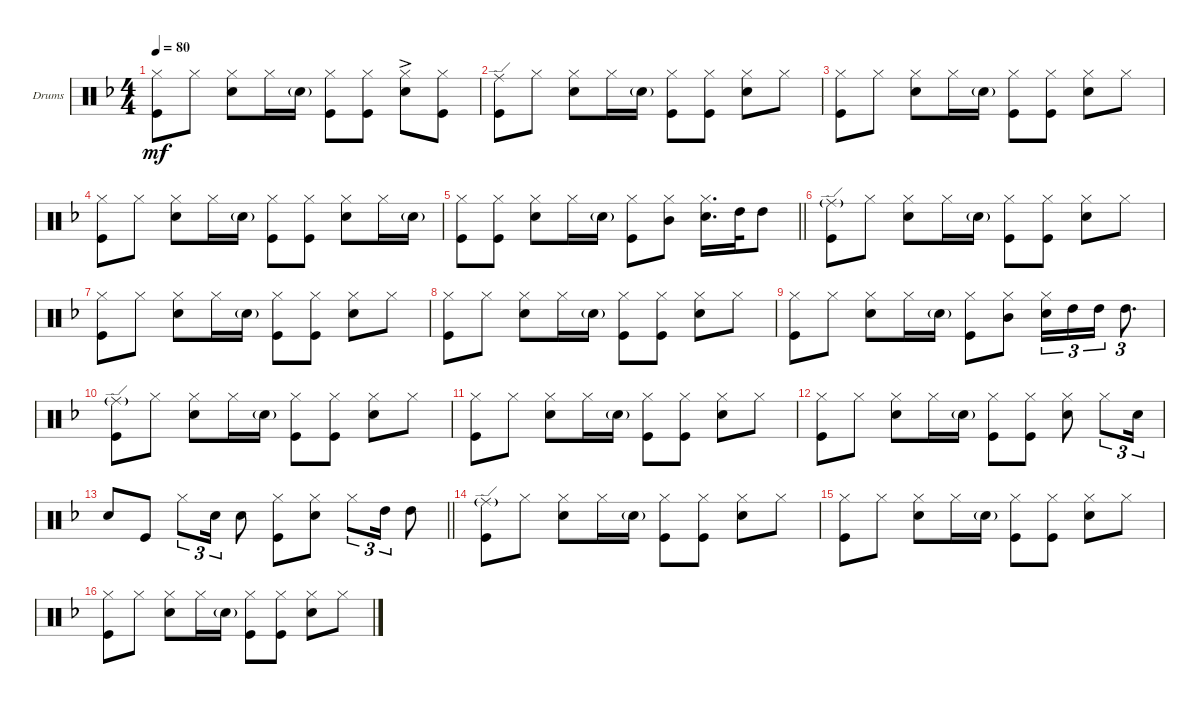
\defaultSystemsLayout 4
\bracketExtendMode groupsimilarinstruments
\firstSystemTrackNameOrientation horizontal
\otherSystemsTrackNameOrientation horizontal
\track ("Drumkit" "Drums") {instrument percussion}
\staff {score}
\articulation defaults
\ts (4 4)
\tempo 80
\clef neutral
\ks f
("Kick (hit)" "Hi-Hat (closed)").8{dy mf} "Hi-Hat (closed)".8 ("Snare (hit) 2" "Hi-Hat (closed)").8 "Hi-Hat (closed)".16 "Snare (hit) 2"{g}.16 ("Hi-Hat (closed)" "Kick (hit)").8 ("Hi-Hat (closed)" "Kick (hit)").8 ("Hi-Hat (closed)" "Snare (hit) 2"{ac}).8 ("Hi-Hat (closed)" "Kick (hit)").8 |
("Kick (hit)" "Ride (edge)").8 "Hi-Hat (closed)".8 ("Snare (hit) 2" "Hi-Hat (closed)").8 "Hi-Hat (closed)".16 "Snare (hit) 2"{g}.16 ("Hi-Hat (closed)" "Kick (hit)").8 ("Hi-Hat (closed)" "Kick (hit)").8 ("Hi-Hat (closed)" "Snare (hit) 2").8 "Hi-Hat (closed)".8 |
("Kick (hit)" "Hi-Hat (closed)").8 "Hi-Hat (closed)".8 ("Snare (hit) 2" "Hi-Hat (closed)").8 "Hi-Hat (closed)".16 "Snare (hit) 2"{g}.16 ("Hi-Hat (closed)" "Kick (hit)").8 ("Hi-Hat (closed)" "Kick (hit)").8 ("Hi-Hat (closed)" "Snare (hit) 2").8 "Hi-Hat (closed)".8 |
("Kick (hit)" "Hi-Hat (closed)").8 "Hi-Hat (closed)".8 ("Snare (hit) 2" "Hi-Hat (closed)").8 "Hi-Hat (closed)".16 "Snare (hit) 2"{g}.16 ("Hi-Hat (closed)" "Kick (hit)").8 ("Hi-Hat (closed)" "Kick (hit)").8 ("Hi-Hat (closed)" "Snare (hit) 2").8 "Hi-Hat (closed)".16 "Snare (hit) 2"{g}.16 |
\barLineRight lightlight
("Hi-Hat (closed)" "Kick (hit)").8 ("Hi-Hat (closed)" "Kick (hit)").8 ("Hi-Hat (closed)" "Snare (hit) 2").8 "Hi-Hat (closed)".16 "Snare (hit) 2"{g}.16 ("Kick (hit)" "Hi-Hat (closed)").8 ("Hi-Hat (closed)" "Mid Tom (hit)").8 ("Hi-Hat (closed)" "Snare (hit) 2").16{d} "High Tom (hit)".32 "High Tom (hit)".8 |
("Kick (hit)" "Ride (edge)"{g}).8 "Hi-Hat (closed)".8 ("Snare (hit) 2" "Hi-Hat (closed)").8 "Hi-Hat (closed)".16 "Snare (hit) 2"{g}.16 ("Hi-Hat (closed)" "Kick (hit)").8 ("Hi-Hat (closed)" "Kick (hit)").8 ("Hi-Hat (closed)" "Snare (hit) 2").8 "Hi-Hat (closed)".8 |
("Kick (hit)" "Hi-Hat (closed)").8 "Hi-Hat (closed)".8 ("Snare (hit) 2" "Hi-Hat (closed)").8 "Hi-Hat (closed)".16 "Snare (hit) 2"{g}.16 ("Hi-Hat (closed)" "Kick (hit)").8 ("Hi-Hat (closed)" "Kick (hit)").8 ("Hi-Hat (closed)" "Snare (hit) 2").8 "Hi-Hat (closed)".8 |
("Kick (hit)" "Hi-Hat (closed)").8 "Hi-Hat (closed)".8 ("Snare (hit) 2" "Hi-Hat (closed)").8 "Hi-Hat (closed)".16 "Snare (hit) 2"{g}.16 ("Hi-Hat (closed)" "Kick (hit)").8 ("Hi-Hat (closed)" "Kick (hit)").8 ("Hi-Hat (closed)" "Snare (hit) 2").8 "Hi-Hat (closed)".8 |
("Kick (hit)" "Hi-Hat (closed)").8 "Hi-Hat (closed)".8 ("Snare (hit) 2" "Hi-Hat (closed)").8 "Hi-Hat (closed)".16 "Snare (hit) 2"{g}.16 ("Hi-Hat (closed)" "Kick (hit)").8 ("Hi-Hat (closed)" "Mid Tom (hit)").8 ("Hi-Hat (closed)" "Snare (hit) 2").16{tu (3 2)} "High Tom (hit)".16{tu (3 2)} "High Tom (hit)".16{tu (3 2)} "High Tom (hit)".8{d tu (3 2)} |
("Kick (hit)" "Ride (edge)"{g}).8 "Hi-Hat (closed)".8 ("Snare (hit) 2" "Hi-Hat (closed)").8 "Hi-Hat (closed)".16 "Snare (hit) 2"{g}.16 ("Hi-Hat (closed)" "Kick (hit)").8 ("Hi-Hat (closed)" "Kick (hit)").8 ("Hi-Hat (closed)" "Snare (hit) 2").8 "Hi-Hat (closed)".8 |
("Kick (hit)" "Hi-Hat (closed)").8 "Hi-Hat (closed)".8 ("Snare (hit) 2" "Hi-Hat (closed)").8 "Hi-Hat (closed)".16 "Snare (hit) 2"{g}.16 ("Hi-Hat (closed)" "Kick (hit)").8 ("Hi-Hat (closed)" "Kick (hit)").8 ("Hi-Hat (closed)" "Snare (hit) 2").8 "Hi-Hat (closed)".8 |
("Kick (hit)" "Hi-Hat (closed)").8 "Hi-Hat (closed)".8 ("Snare (hit) 2" "Hi-Hat (closed)").8 "Hi-Hat (closed)".16 "Snare (hit) 2"{g}.16 ("Hi-Hat (closed)" "Kick (hit)").8 ("Hi-Hat (closed)" "Kick (hit)").8 ("Hi-Hat (closed)" "Snare (hit) 2").8 "Hi-Hat (closed)".8{tu (3 2)} "Snare (hit) 2".16{tu (3 2)} |
\barLineRight lightlight "Snare (hit) 2".8 "Kick (hit)".8 "Hi-Hat (closed)".8{tu (3 2)} "Snare (hit) 2".16{tu (3 2)} "Snare (hit) 2".8
("Kick (hit)" "Hi-Hat (closed)").8 ("Snare (hit) 2" "Hi-Hat (closed)").8 "Hi-Hat (closed)".8{tu (3 2)} "High Tom (hit)".16{tu (3 2)} "High Tom (hit)".8 |
("Kick (hit)" "Ride (edge)"{g}).8 "Hi-Hat (closed)".8 ("Snare (hit) 2" "Hi-Hat (closed)").8 "Hi-Hat (closed)".16 "Snare (hit) 2"{g}.16 ("Hi-Hat (closed)" "Kick (hit)").8 ("Hi-Hat (closed)" "Kick (hit)").8 ("Hi-Hat (closed)" "Snare (hit) 2").8 "Hi-Hat (closed)".8 |
("Kick (hit)" "Hi-Hat (closed)").8 "Hi-Hat (closed)".8 ("Snare (hit) 2" "Hi-Hat (closed)").8 "Hi-Hat (closed)".16 "Snare (hit) 2"{g}.16 ("Hi-Hat (closed)" "Kick (hit)").8 ("Hi-Hat (closed)" "Kick (hit)").8 ("Hi-Hat (closed)" "Snare (hit) 2").8 "Hi-Hat (closed)".8 |
("Kick (hit)" "Hi-Hat (closed)").8 "Hi-Hat (closed)".8 ("Snare (hit) 2" "Hi-Hat (closed)").8 "Hi-Hat (closed)".16 "Snare (hit) 2"{g}.16 ("Hi-Hat (closed)" "Kick (hit)").8 ("Hi-Hat (closed)" "Kick (hit)").8 ("Hi-Hat (closed)" "Snare (hit) 2").8 "Hi-Hat (closed)".8
